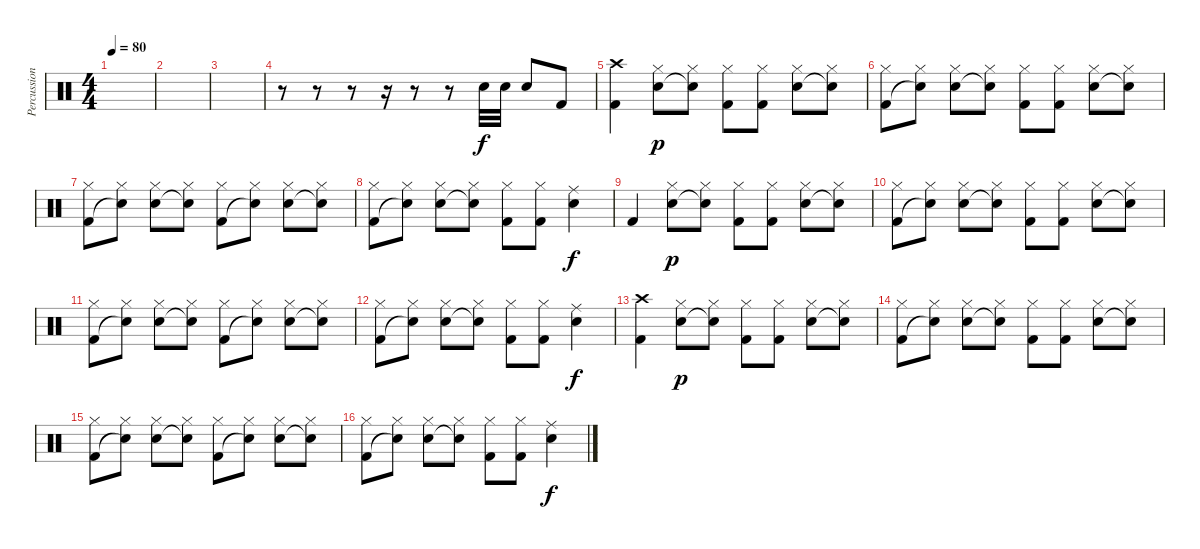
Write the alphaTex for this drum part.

\track ("Percussions" "Percussion") {instrument percussion}
\staff {score}
\articulation defaults
\ts (4 4)
\tempo 80
\clef neutral
\ks c
|
|
|
r.8 r.8 r.8 r.16 r.8 r.8 "Electric Snare (hit)".32 "Electric Snare (hit)".32 "Electric Snare (hit)".8{dy f} "Kick (hit) 2".8 |
("Crash high (hit)" "Kick (hit) 2").4 ("Hi-Hat (closed)" "Electric Snare (hit)").8{dy p} ("Hi-Hat (closed)" "Snare (hit)"{t}).8 ("Hi-Hat (closed)" "Kick (hit) 2").8 ("Hi-Hat (closed)" "Kick (hit) 2").8 ("Hi-Hat (closed)" "Electric Snare (hit)").8 ("Hi-Hat (closed)" "Snare (hit)"{t}).8 |
("Hi-Hat (closed)" "Kick (hit) 2").8 ("Hi-Hat (closed)" "Snare (hit)"{t}).8 ("Hi-Hat (closed)" "Electric Snare (hit)").8 ("Hi-Hat (closed)" "Snare (hit)"{t}).8 ("Hi-Hat (closed)" "Kick (hit) 2").8 ("Hi-Hat (closed)" "Kick (hit) 2").8 ("Hi-Hat (closed)" "Electric Snare (hit)").8 ("Hi-Hat (closed)" "Snare (hit)"{t}).8 |
("Hi-Hat (closed)" "Kick (hit) 2").8 ("Hi-Hat (closed)" "Snare (hit)"{t}).8 ("Hi-Hat (closed)" "Electric Snare (hit)").8 ("Hi-Hat (closed)" "Snare (hit)"{t}).8 ("Hi-Hat (closed)" "Kick (hit) 2").8 ("Hi-Hat (closed)" "Snare (hit)"{t}).8 ("Hi-Hat (closed)" "Electric Snare (hit)").8 ("Hi-Hat (closed)" "Snare (hit)"{t}).8 |
("Hi-Hat (closed)" "Kick (hit) 2").8 ("Hi-Hat (closed)" "Snare (hit)"{t}).8 ("Hi-Hat (closed)" "Electric Snare (hit)").8 ("Hi-Hat (closed)" "Snare (hit)"{t}).8 ("Hi-Hat (closed)" "Kick (hit) 2").8 ("Hi-Hat (closed)" "Kick (hit) 2").8 ("Ride (middle)" "Electric Snare (hit)").4{dy f} |
"Kick (hit) 2".4 ("Hi-Hat (closed)" "Electric Snare (hit)").8{dy p} ("Hi-Hat (closed)" "Snare (hit)"{t}).8 ("Hi-Hat (closed)" "Kick (hit) 2").8 ("Hi-Hat (closed)" "Kick (hit) 2").8 ("Hi-Hat (closed)" "Electric Snare (hit)").8 ("Hi-Hat (closed)" "Snare (hit)"{t}).8 |
("Hi-Hat (closed)" "Kick (hit) 2").8 ("Hi-Hat (closed)" "Snare (hit)"{t}).8 ("Hi-Hat (closed)" "Electric Snare (hit)").8 ("Hi-Hat (closed)" "Snare (hit)"{t}).8 ("Hi-Hat (closed)" "Kick (hit) 2").8 ("Hi-Hat (closed)" "Kick (hit) 2").8 ("Hi-Hat (closed)" "Electric Snare (hit)").8 ("Hi-Hat (closed)" "Snare (hit)"{t}).8 |
("Hi-Hat (closed)" "Kick (hit) 2").8 ("Hi-Hat (closed)" "Snare (hit)"{t}).8 ("Hi-Hat (closed)" "Electric Snare (hit)").8 ("Hi-Hat (closed)" "Snare (hit)"{t}).8 ("Hi-Hat (closed)" "Kick (hit) 2").8 ("Hi-Hat (closed)" "Snare (hit)"{t}).8 ("Hi-Hat (closed)" "Electric Snare (hit)").8 ("Hi-Hat (closed)" "Snare (hit)"{t}).8 |
("Hi-Hat (closed)" "Kick (hit) 2").8 ("Hi-Hat (closed)" "Snare (hit)"{t}).8 ("Hi-Hat (closed)" "Electric Snare (hit)").8 ("Hi-Hat (closed)" "Snare (hit)"{t}).8 ("Hi-Hat (closed)" "Kick (hit) 2").8 ("Hi-Hat (closed)" "Kick (hit) 2").8 ("Ride (middle)" "Electric Snare (hit)").4{dy f} |
("Crash high (hit)" "Kick (hit) 2").4 ("Hi-Hat (closed)" "Electric Snare (hit)").8{dy p} ("Hi-Hat (closed)" "Snare (hit)"{t}).8 ("Hi-Hat (closed)" "Kick (hit) 2").8 ("Hi-Hat (closed)" "Kick (hit) 2").8 ("Hi-Hat (closed)" "Electric Snare (hit)").8 ("Hi-Hat (closed)" "Snare (hit)"{t}).8 |
("Hi-Hat (closed)" "Kick (hit) 2").8 ("Hi-Hat (closed)" "Snare (hit)"{t}).8 ("Hi-Hat (closed)" "Electric Snare (hit)").8 ("Hi-Hat (closed)" "Snare (hit)"{t}).8 ("Hi-Hat (closed)" "Kick (hit) 2").8 ("Hi-Hat (closed)" "Kick (hit) 2").8 ("Hi-Hat (closed)" "Electric Snare (hit)").8 ("Hi-Hat (closed)" "Snare (hit)"{t}).8 |
("Hi-Hat (closed)" "Kick (hit) 2").8 ("Hi-Hat (closed)" "Snare (hit)"{t}).8 ("Hi-Hat (closed)" "Electric Snare (hit)").8 ("Hi-Hat (closed)" "Snare (hit)"{t}).8 ("Hi-Hat (closed)" "Kick (hit) 2").8 ("Hi-Hat (closed)" "Snare (hit)"{t}).8 ("Hi-Hat (closed)" "Electric Snare (hit)").8 ("Hi-Hat (closed)" "Snare (hit)"{t}).8 |
("Hi-Hat (closed)" "Kick (hit) 2").8 ("Hi-Hat (closed)" "Snare (hit)"{t}).8 ("Hi-Hat (closed)" "Electric Snare (hit)").8 ("Hi-Hat (closed)" "Snare (hit)"{t}).8 ("Hi-Hat (closed)" "Kick (hit) 2").8 ("Hi-Hat (closed)" "Kick (hit) 2").8 ("Ride (middle)" "Electric Snare (hit)").4{dy f}
